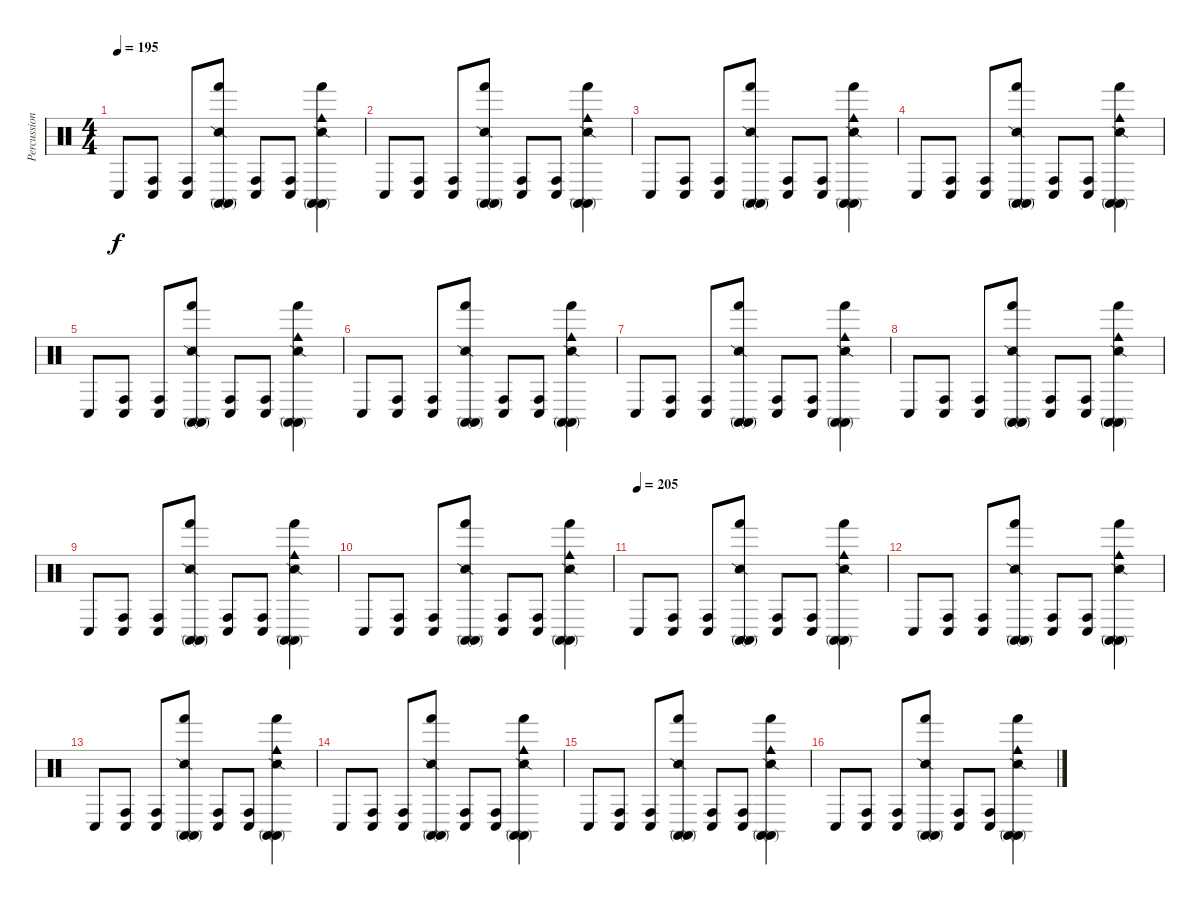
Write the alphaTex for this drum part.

\track ("Percussion" "Percussion") {instrument percussion}
\staff {score}
\articulation defaults
\ts (4 4)
\tempo 195
\clef neutral
\ks c "Conga low (hit)".8{dy f}
("Conga high (hit)" "Conga low (hit)").8 ("Conga high (hit)" "Conga low (hit)").8 ("Snare (side stick) 2" "Hand (hit)" "Conga high (mute)" "Conga high (mute)").8 ("Conga high (hit)" "Conga low (hit)").8 ("Conga high (hit)" "Conga low (hit)").8 ("Snare (side stick) 2" "Hand (hit)" "Cowbell medium (hit)" "Conga high (mute)" "Conga high (mute)").4 |
"Conga low (hit)".8 ("Conga high (hit)" "Conga low (hit)").8 ("Conga high (hit)" "Conga low (hit)").8 ("Snare (side stick) 2" "Hand (hit)" "Conga high (mute)" "Conga high (mute)").8 ("Conga high (hit)" "Conga low (hit)").8 ("Conga high (hit)" "Conga low (hit)").8 ("Snare (side stick) 2" "Hand (hit)" "Cowbell medium (hit)" "Conga high (mute)" "Conga high (mute)").4 |
"Conga low (hit)".8 ("Conga high (hit)" "Conga low (hit)").8 ("Conga high (hit)" "Conga low (hit)").8 ("Snare (side stick) 2" "Hand (hit)" "Conga high (mute)" "Conga high (mute)").8 ("Conga high (hit)" "Conga low (hit)").8 ("Conga high (hit)" "Conga low (hit)").8 ("Snare (side stick) 2" "Hand (hit)" "Cowbell medium (hit)" "Conga high (mute)" "Conga high (mute)").4 |
"Conga low (hit)".8 ("Conga high (hit)" "Conga low (hit)").8 ("Conga high (hit)" "Conga low (hit)").8 ("Snare (side stick) 2" "Hand (hit)" "Conga high (mute)" "Conga high (mute)").8 ("Conga high (hit)" "Conga low (hit)").8 ("Conga high (hit)" "Conga low (hit)").8 ("Snare (side stick) 2" "Hand (hit)" "Cowbell medium (hit)" "Conga high (mute)" "Conga high (mute)").4 |
"Conga low (hit)".8 ("Conga high (hit)" "Conga low (hit)").8 ("Conga high (hit)" "Conga low (hit)").8 ("Snare (side stick) 2" "Hand (hit)" "Conga high (mute)" "Conga high (mute)").8 ("Conga high (hit)" "Conga low (hit)").8 ("Conga high (hit)" "Conga low (hit)").8 ("Snare (side stick) 2" "Hand (hit)" "Cowbell medium (hit)" "Conga high (mute)" "Conga high (mute)").4 |
"Conga low (hit)".8 ("Conga high (hit)" "Conga low (hit)").8 ("Conga high (hit)" "Conga low (hit)").8 ("Snare (side stick) 2" "Hand (hit)" "Conga high (mute)" "Conga high (mute)").8 ("Conga high (hit)" "Conga low (hit)").8 ("Conga high (hit)" "Conga low (hit)").8 ("Snare (side stick) 2" "Hand (hit)" "Cowbell medium (hit)" "Conga high (mute)" "Conga high (mute)").4 |
"Conga low (hit)".8 ("Conga high (hit)" "Conga low (hit)").8 ("Conga high (hit)" "Conga low (hit)").8 ("Snare (side stick) 2" "Hand (hit)" "Conga high (mute)" "Conga high (mute)").8 ("Conga high (hit)" "Conga low (hit)").8 ("Conga high (hit)" "Conga low (hit)").8 ("Snare (side stick) 2" "Hand (hit)" "Cowbell medium (hit)" "Conga high (mute)" "Conga high (mute)").4 |
"Conga low (hit)".8 ("Conga high (hit)" "Conga low (hit)").8 ("Conga high (hit)" "Conga low (hit)").8 ("Snare (side stick) 2" "Hand (hit)" "Conga high (mute)" "Conga high (mute)").8 ("Conga high (hit)" "Conga low (hit)").8 ("Conga high (hit)" "Conga low (hit)").8 ("Snare (side stick) 2" "Hand (hit)" "Cowbell medium (hit)" "Conga high (mute)" "Conga high (mute)").4 |
"Conga low (hit)".8 ("Conga high (hit)" "Conga low (hit)").8 ("Conga high (hit)" "Conga low (hit)").8 ("Snare (side stick) 2" "Hand (hit)" "Conga high (mute)" "Conga high (mute)").8 ("Conga high (hit)" "Conga low (hit)").8 ("Conga high (hit)" "Conga low (hit)").8 ("Snare (side stick) 2" "Hand (hit)" "Cowbell medium (hit)" "Conga high (mute)" "Conga high (mute)").4 |
"Conga low (hit)".8 ("Conga high (hit)" "Conga low (hit)").8 ("Conga high (hit)" "Conga low (hit)").8 ("Snare (side stick) 2" "Hand (hit)" "Conga high (mute)" "Conga high (mute)").8 ("Conga high (hit)" "Conga low (hit)").8 ("Conga high (hit)" "Conga low (hit)").8 ("Snare (side stick) 2" "Hand (hit)" "Cowbell medium (hit)" "Conga high (mute)" "Conga high (mute)").4 |
\tempo (205)
"Conga low (hit)".8 ("Conga high (hit)" "Conga low (hit)").8 ("Conga high (hit)" "Conga low (hit)").8 ("Snare (side stick) 2" "Hand (hit)" "Conga high (mute)" "Conga high (mute)").8 ("Conga high (hit)" "Conga low (hit)").8 ("Conga high (hit)" "Conga low (hit)").8 ("Snare (side stick) 2" "Hand (hit)" "Cowbell medium (hit)" "Conga high (mute)" "Conga high (mute)").4 |
"Conga low (hit)".8 ("Conga high (hit)" "Conga low (hit)").8 ("Conga high (hit)" "Conga low (hit)").8 ("Snare (side stick) 2" "Hand (hit)" "Conga high (mute)" "Conga high (mute)").8 ("Conga high (hit)" "Conga low (hit)").8 ("Conga high (hit)" "Conga low (hit)").8 ("Snare (side stick) 2" "Hand (hit)" "Cowbell medium (hit)" "Conga high (mute)" "Conga high (mute)").4 |
"Conga low (hit)".8 ("Conga high (hit)" "Conga low (hit)").8 ("Conga high (hit)" "Conga low (hit)").8 ("Snare (side stick) 2" "Hand (hit)" "Conga high (mute)" "Conga high (mute)").8 ("Conga high (hit)" "Conga low (hit)").8 ("Conga high (hit)" "Conga low (hit)").8 ("Snare (side stick) 2" "Hand (hit)" "Cowbell medium (hit)" "Conga high (mute)" "Conga high (mute)").4 |
"Conga low (hit)".8 ("Conga high (hit)" "Conga low (hit)").8 ("Conga high (hit)" "Conga low (hit)").8 ("Snare (side stick) 2" "Hand (hit)" "Conga high (mute)" "Conga high (mute)").8 ("Conga high (hit)" "Conga low (hit)").8 ("Conga high (hit)" "Conga low (hit)").8 ("Snare (side stick) 2" "Hand (hit)" "Cowbell medium (hit)" "Conga high (mute)" "Conga high (mute)").4 |
"Conga low (hit)".8 ("Conga high (hit)" "Conga low (hit)").8 ("Conga high (hit)" "Conga low (hit)").8 ("Snare (side stick) 2" "Hand (hit)" "Conga high (mute)" "Conga high (mute)").8 ("Conga high (hit)" "Conga low (hit)").8 ("Conga high (hit)" "Conga low (hit)").8 ("Snare (side stick) 2" "Hand (hit)" "Cowbell medium (hit)" "Conga high (mute)" "Conga high (mute)").4 |
"Conga low (hit)".8 ("Conga high (hit)" "Conga low (hit)").8 ("Conga high (hit)" "Conga low (hit)").8 ("Snare (side stick) 2" "Hand (hit)" "Conga high (mute)" "Conga high (mute)").8 ("Conga high (hit)" "Conga low (hit)").8 ("Conga high (hit)" "Conga low (hit)").8 ("Snare (side stick) 2" "Hand (hit)" "Cowbell medium (hit)" "Conga high (mute)" "Conga high (mute)").4
